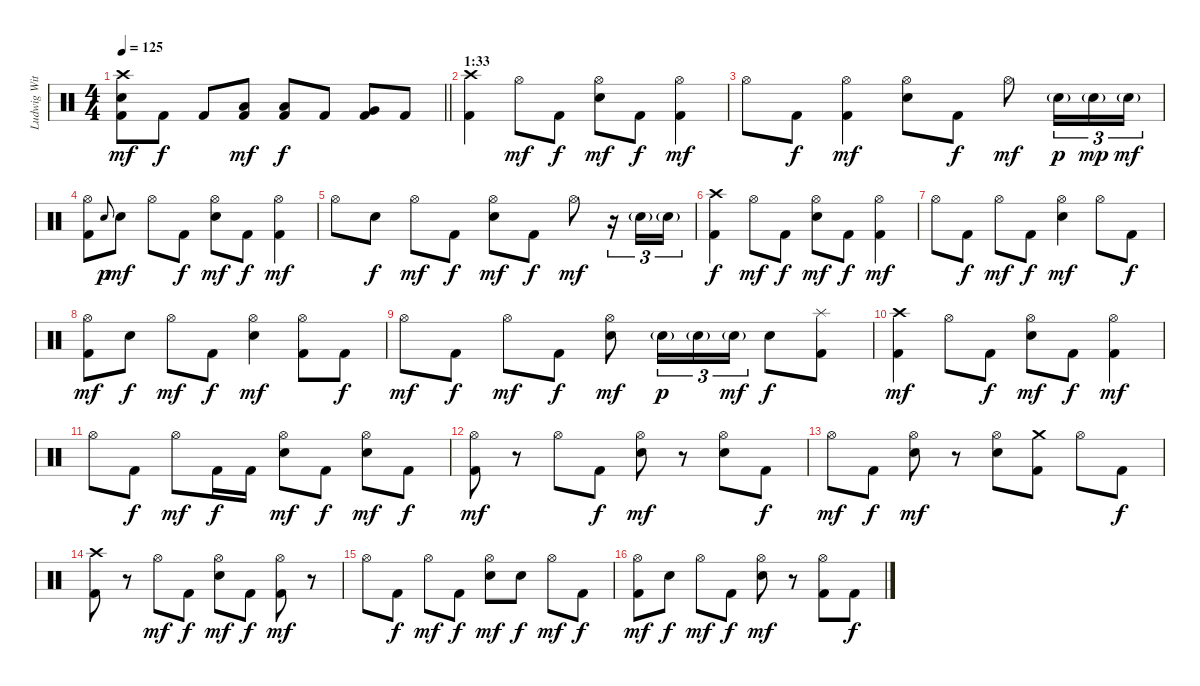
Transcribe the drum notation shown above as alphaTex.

\track ("Ludwig Witt" "Ludwig Wit") {instrument percussion}
\staff {score}
\articulation defaults
\ts (4 4)
\tempo 125
\clef neutral
\barLineRight lightlight
\ks c
("Crash high (hit)" "Electric Snare (hit)" "Kick (hit) 2").8{dy mf} "Kick (hit) 2".8{dy f} "Kick (hit) 2".8 ("Low Tom (hit)" "Kick (hit) 2").8{dy mf} ("Low Tom (hit)" "Kick (hit) 2").8{dy f} "Kick (hit) 2".8 ("Very Low Tom (hit)" "Kick (hit) 2").8 "Kick (hit) 2".8 |
\section ("" "1:33")
("Crash high (hit)" "Kick (hit) 2").4 "Hi-Hat (open)".8{dy mf} "Kick (hit) 2".8{dy f} ("Hi-Hat (open)" "Electric Snare (hit)").8{dy mf} "Kick (hit) 2".8{dy f} ("Hi-Hat (open)" "Kick (hit) 2").4{dy mf} |
"Hi-Hat (open)".8 "Kick (hit) 2".8{dy f} ("Hi-Hat (open)" "Kick (hit) 2").4{dy mf} ("Hi-Hat (open)" "Electric Snare (hit)").8 "Kick (hit) 2".8{dy f} "Hi-Hat (open)".8{dy mf} "Electric Snare (hit)"{g}.16{tu (3 2) dy p} "Electric Snare (hit)"{g}.16{tu (3 2) dy mp} "Electric Snare (hit)"{g}.16{tu (3 2) dy mf} |
("Hi-Hat (open)" "Kick (hit) 2").8 "Electric Snare (hit)".8{gr onbeat dy p} "Electric Snare (hit)".8{dy mf} "Hi-Hat (open)".8 "Kick (hit) 2".8{dy f} ("Hi-Hat (open)" "Electric Snare (hit)").8{dy mf} "Kick (hit) 2".8{dy f} ("Hi-Hat (open)" "Kick (hit) 2").4{dy mf} |
"Hi-Hat (open)".8 "Electric Snare (hit)".8{dy f} "Hi-Hat (open)".8{dy mf} "Kick (hit) 2".8{dy f} ("Hi-Hat (open)" "Electric Snare (hit)").8{dy mf} "Kick (hit) 2".8{dy f} "Hi-Hat (open)".8{dy mf} r.16{tu (3 2)} "Electric Snare (hit)"{g}.16{tu (3 2)} "Electric Snare (hit)"{g}.16{tu (3 2)} |
("Crash high (hit)" "Kick (hit) 2").4{dy f} "Hi-Hat (open)".8{dy mf} "Kick (hit) 2".8{dy f} ("Hi-Hat (open)" "Electric Snare (hit)").8{dy mf} "Kick (hit) 2".8{dy f} ("Hi-Hat (open)" "Kick (hit) 2").4{dy mf} |
"Hi-Hat (open)".8 "Kick (hit) 2".8{dy f} "Hi-Hat (open)".8{dy mf} "Kick (hit) 2".8{dy f} ("Hi-Hat (open)" "Electric Snare (hit)").4{dy mf} "Hi-Hat (open)".8 "Kick (hit) 2".8{dy f} |
("Hi-Hat (open)" "Kick (hit) 2").8{dy mf} "Electric Snare (hit)".8{dy f} "Hi-Hat (open)".8{dy mf} "Kick (hit) 2".8{dy f} ("Hi-Hat (open)" "Electric Snare (hit)").4{dy mf} ("Hi-Hat (open)" "Kick (hit) 2").8 "Kick (hit) 2".8{dy f} |
"Hi-Hat (open)".8{dy mf} "Kick (hit) 2".8{dy f} "Hi-Hat (open)".8{dy mf} "Kick (hit) 2".8{dy f} ("Hi-Hat (open)" "Electric Snare (hit)").8{dy mf} "Electric Snare (hit)"{g}.16{tu (3 2) dy p} "Electric Snare (hit)"{g}.16{tu (3 2)} "Electric Snare (hit)"{g}.16{tu (3 2) dy mf} "Electric Snare (hit)".8{dy f} ("Splash (hit)" "Kick (hit) 2").8 |
("Crash high (hit)" "Kick (hit) 2").4{dy mf} "Hi-Hat (open)".8 "Kick (hit) 2".8{dy f} ("Hi-Hat (open)" "Electric Snare (hit)").8{dy mf} "Kick (hit) 2".8{dy f} ("Hi-Hat (open)" "Kick (hit) 2").4{dy mf} |
"Hi-Hat (open)".8 "Kick (hit) 2".8{dy f} "Hi-Hat (open)".8{dy mf} "Kick (hit) 2".16{dy f} "Kick (hit) 2".16 ("Hi-Hat (open)" "Electric Snare (hit)").8{dy mf} "Kick (hit) 2".8{dy f} ("Hi-Hat (open)" "Electric Snare (hit)").8{dy mf} "Kick (hit) 2".8{dy f} |
("Hi-Hat (open)" "Kick (hit) 2").8{dy mf} r.8 "Hi-Hat (open)".8 "Kick (hit) 2".8{dy f} ("Hi-Hat (open)" "Electric Snare (hit)").8{dy mf} r.8 ("Hi-Hat (open)" "Electric Snare (hit)").8 "Kick (hit) 2".8{dy f} |
"Hi-Hat (open)".8{dy mf} "Kick (hit) 2".8{dy f} ("Hi-Hat (open)" "Electric Snare (hit)").8{dy mf} r.8 ("Hi-Hat (open)" "Electric Snare (hit)").8 ("Crash medium (hit)" "Kick (hit) 2").8 "Hi-Hat (open)".8 "Kick (hit) 2".8{dy f} |
("Crash high (hit)" "Kick (hit) 2").8 r.8 "Hi-Hat (open)".8{dy mf} "Kick (hit) 2".8{dy f} ("Hi-Hat (open)" "Electric Snare (hit)").8{dy mf} "Kick (hit) 2".8{dy f} ("Hi-Hat (open)" "Kick (hit) 2").8{dy mf} r.8 |
"Hi-Hat (open)".8 "Kick (hit) 2".8{dy f} "Hi-Hat (open)".8{dy mf} "Kick (hit) 2".8{dy f} ("Hi-Hat (open)" "Electric Snare (hit)").8{dy mf} "Electric Snare (hit)".8{dy f} "Hi-Hat (open)".8{dy mf} "Kick (hit) 2".8{dy f} |
("Hi-Hat (open)" "Kick (hit) 2").8{dy mf} "Electric Snare (hit)".8{dy f} "Hi-Hat (open)".8{dy mf} "Kick (hit) 2".8{dy f} ("Hi-Hat (open)" "Electric Snare (hit)").8{dy mf} r.8 ("Hi-Hat (open)" "Kick (hit) 2").8 "Kick (hit) 2".8{dy f}
